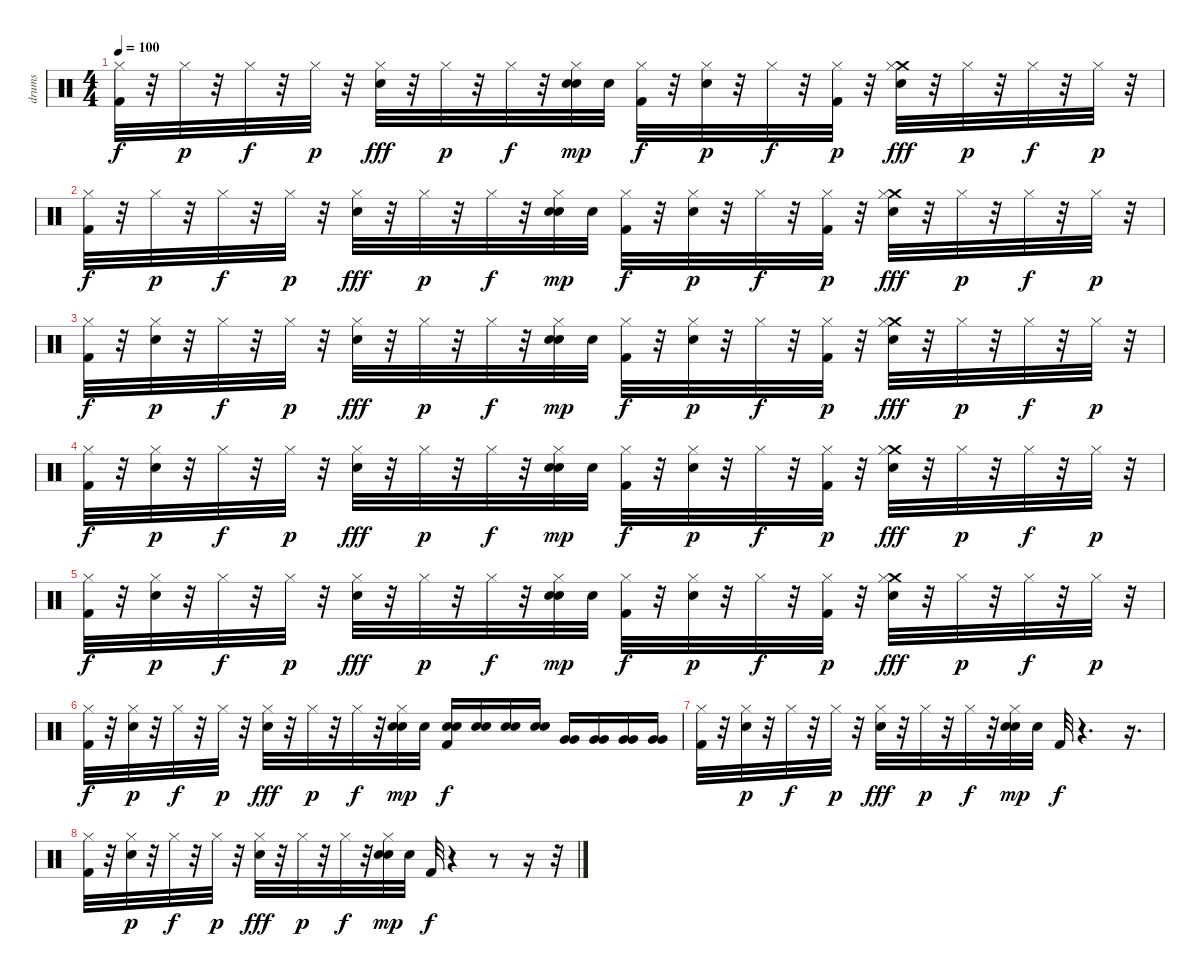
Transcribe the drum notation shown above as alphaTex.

\track ("drums" "drums") {instrument percussion}
\staff {score}
\articulation defaults
\ts (4 4)
\tempo 100
\clef neutral
\ks c
("Hi-Hat (closed)" "Kick (hit) 2").32{dy f} r.32 "Hi-Hat (closed)".32{dy p} r.32 "Hi-Hat (closed)".32{dy f} r.32 "Hi-Hat (closed)".32{dy p} r.32 ("Hi-Hat (closed)" "Electric Snare (hit)").32{dy fff} r.32 "Hi-Hat (closed)".32{dy p} r.32 "Hi-Hat (closed)".32{dy f} r.32 ("Hi-Hat (closed)" "Electric Snare (hit)" "Electric Snare (hit)").32{dy mp} "Electric Snare (hit)".32 ("Hi-Hat (closed)" "Kick (hit) 2").32{dy f} r.32 ("Hi-Hat (closed)" "Electric Snare (hit)").32{dy p} r.32 "Hi-Hat (closed)".32{dy f} r.32 ("Hi-Hat (closed)" "Kick (hit) 2").32{dy p} r.32 ("Crash medium (hit)" "Hi-Hat (closed)" "Electric Snare (hit)").32{dy fff} r.32 "Hi-Hat (closed)".32{dy p} r.32 "Hi-Hat (closed)".32{dy f} r.32 "Hi-Hat (closed)".32{dy p} r.32 |
("Hi-Hat (closed)" "Kick (hit) 2").32{dy f} r.32 "Hi-Hat (closed)".32{dy p} r.32 "Hi-Hat (closed)".32{dy f} r.32 "Hi-Hat (closed)".32{dy p} r.32 ("Hi-Hat (closed)" "Electric Snare (hit)").32{dy fff} r.32 "Hi-Hat (closed)".32{dy p} r.32 "Hi-Hat (closed)".32{dy f} r.32 ("Hi-Hat (closed)" "Electric Snare (hit)" "Electric Snare (hit)").32{dy mp} "Electric Snare (hit)".32 ("Hi-Hat (closed)" "Kick (hit) 2").32{dy f} r.32 ("Hi-Hat (closed)" "Electric Snare (hit)").32{dy p} r.32 "Hi-Hat (closed)".32{dy f} r.32 ("Hi-Hat (closed)" "Kick (hit) 2").32{dy p} r.32 ("Crash medium (hit)" "Hi-Hat (closed)" "Electric Snare (hit)").32{dy fff} r.32 "Hi-Hat (closed)".32{dy p} r.32 "Hi-Hat (closed)".32{dy f} r.32 "Hi-Hat (closed)".32{dy p} r.32 |
("Hi-Hat (closed)" "Kick (hit) 2").32{dy f} r.32 ("Hi-Hat (closed)" "Electric Snare (hit)").32{dy p} r.32 "Hi-Hat (closed)".32{dy f} r.32 "Hi-Hat (closed)".32{dy p} r.32 ("Hi-Hat (closed)" "Electric Snare (hit)").32{dy fff} r.32 "Hi-Hat (closed)".32{dy p} r.32 "Hi-Hat (closed)".32{dy f} r.32 ("Hi-Hat (closed)" "Electric Snare (hit)" "Electric Snare (hit)").32{dy mp} "Electric Snare (hit)".32 ("Hi-Hat (closed)" "Kick (hit) 2").32{dy f} r.32 ("Hi-Hat (closed)" "Electric Snare (hit)").32{dy p} r.32 "Hi-Hat (closed)".32{dy f} r.32 ("Hi-Hat (closed)" "Kick (hit) 2").32{dy p} r.32 ("Crash medium (hit)" "Hi-Hat (closed)" "Electric Snare (hit)").32{dy fff} r.32 "Hi-Hat (closed)".32{dy p} r.32 "Hi-Hat (closed)".32{dy f} r.32 "Hi-Hat (closed)".32{dy p} r.32 |
("Hi-Hat (closed)" "Kick (hit) 2").32{dy f} r.32 ("Hi-Hat (closed)" "Electric Snare (hit)").32{dy p} r.32 "Hi-Hat (closed)".32{dy f} r.32 "Hi-Hat (closed)".32{dy p} r.32 ("Hi-Hat (closed)" "Electric Snare (hit)").32{dy fff} r.32 "Hi-Hat (closed)".32{dy p} r.32 "Hi-Hat (closed)".32{dy f} r.32 ("Hi-Hat (closed)" "Electric Snare (hit)" "Electric Snare (hit)").32{dy mp} "Electric Snare (hit)".32 ("Hi-Hat (closed)" "Kick (hit) 2").32{dy f} r.32 ("Hi-Hat (closed)" "Electric Snare (hit)").32{dy p} r.32 "Hi-Hat (closed)".32{dy f} r.32 ("Hi-Hat (closed)" "Kick (hit) 2").32{dy p} r.32 ("Crash medium (hit)" "Hi-Hat (closed)" "Electric Snare (hit)").32{dy fff} r.32 "Hi-Hat (closed)".32{dy p} r.32 "Hi-Hat (closed)".32{dy f} r.32 "Hi-Hat (closed)".32{dy p} r.32 |
("Hi-Hat (closed)" "Kick (hit) 2").32{dy f} r.32 ("Hi-Hat (closed)" "Electric Snare (hit)").32{dy p} r.32 "Hi-Hat (closed)".32{dy f} r.32 "Hi-Hat (closed)".32{dy p} r.32 ("Hi-Hat (closed)" "Electric Snare (hit)").32{dy fff} r.32 "Hi-Hat (closed)".32{dy p} r.32 "Hi-Hat (closed)".32{dy f} r.32 ("Hi-Hat (closed)" "Electric Snare (hit)" "Electric Snare (hit)").32{dy mp} "Electric Snare (hit)".32 ("Hi-Hat (closed)" "Kick (hit) 2").32{dy f} r.32 ("Hi-Hat (closed)" "Electric Snare (hit)").32{dy p} r.32 "Hi-Hat (closed)".32{dy f} r.32 ("Hi-Hat (closed)" "Kick (hit) 2").32{dy p} r.32 ("Crash medium (hit)" "Hi-Hat (closed)" "Electric Snare (hit)").32{dy fff} r.32 "Hi-Hat (closed)".32{dy p} r.32 "Hi-Hat (closed)".32{dy f} r.32 "Hi-Hat (closed)".32{dy p} r.32 |
("Hi-Hat (closed)" "Kick (hit) 2").32{dy f} r.32 ("Hi-Hat (closed)" "Electric Snare (hit)").32{dy p} r.32 "Hi-Hat (closed)".32{dy f} r.32 "Hi-Hat (closed)".32{dy p} r.32 ("Hi-Hat (closed)" "Electric Snare (hit)").32{dy fff} r.32 "Hi-Hat (closed)".32{dy p} r.32 "Hi-Hat (closed)".32{dy f} r.32 ("Hi-Hat (closed)" "Electric Snare (hit)" "Electric Snare (hit)").32{dy mp} "Electric Snare (hit)".32 ("Snare (hit) 2" "Kick (hit) 2" "Snare (hit) 2").16{dy f} ("Snare (hit) 2" "Snare (hit) 2").16 ("Snare (hit) 2" "Snare (hit) 2").16 ("Snare (hit) 2" "Snare (hit) 2").16 ("Very Low Tom (hit)" "Very Low Tom (hit)").16 ("Very Low Tom (hit)" "Very Low Tom (hit)").16 ("Very Low Tom (hit)" "Very Low Tom (hit)").16 ("Very Low Tom (hit)" "Very Low Tom (hit)").16 |
("Hi-Hat (closed)" "Kick (hit) 2").32 r.32 ("Hi-Hat (closed)" "Electric Snare (hit)").32{dy p} r.32 "Hi-Hat (closed)".32{dy f} r.32 "Hi-Hat (closed)".32{dy p} r.32 ("Hi-Hat (closed)" "Electric Snare (hit)").32{dy fff} r.32 "Hi-Hat (closed)".32{dy p} r.32 "Hi-Hat (closed)".32{dy f} r.32 ("Hi-Hat (closed)" "Electric Snare (hit)" "Electric Snare (hit)").32{dy mp} "Electric Snare (hit)".32 "Kick (hit) 2".32{dy f} r.4{d} r.16{d} |
("Hi-Hat (closed)" "Kick (hit) 2").32 r.32 ("Hi-Hat (closed)" "Electric Snare (hit)").32{dy p} r.32 "Hi-Hat (closed)".32{dy f} r.32 "Hi-Hat (closed)".32{dy p} r.32 ("Hi-Hat (closed)" "Electric Snare (hit)").32{dy fff} r.32 "Hi-Hat (closed)".32{dy p} r.32 "Hi-Hat (closed)".32{dy f} r.32 ("Hi-Hat (closed)" "Electric Snare (hit)" "Electric Snare (hit)").32{dy mp} "Electric Snare (hit)".32 "Kick (hit) 2".32{dy f} r.4 r.8 r.16 r.32
